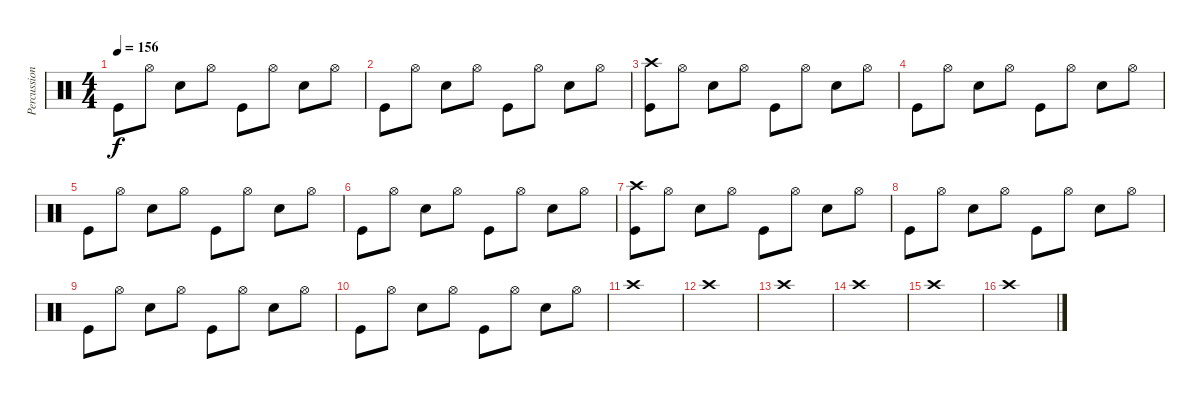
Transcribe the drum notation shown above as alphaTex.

\track ("Percussion" "Percussion") {instrument percussion}
\staff {score}
\articulation defaults
\ts (4 4)
\tempo 156
\clef neutral
\ks c "Kick (hit)".8{dy f} "Hi-Hat (open)".8 "Electric Snare (hit)".8 "Hi-Hat (open)".8 "Kick (hit)".8 "Hi-Hat (open)".8 "Electric Snare (hit)".8 "Hi-Hat (open)".8
|
"Kick (hit)".8 "Hi-Hat (open)".8 "Electric Snare (hit)".8 "Hi-Hat (open)".8 "Kick (hit)".8 "Hi-Hat (open)".8 "Electric Snare (hit)".8 "Hi-Hat (open)".8 |
("Crash high (hit)" "Kick (hit)").8 "Hi-Hat (open)".8 "Electric Snare (hit)".8 "Hi-Hat (open)".8 "Kick (hit)".8 "Hi-Hat (open)".8 "Electric Snare (hit)".8 "Hi-Hat (open)".8 |
"Kick (hit)".8 "Hi-Hat (open)".8 "Electric Snare (hit)".8 "Hi-Hat (open)".8 "Kick (hit)".8 "Hi-Hat (open)".8 "Electric Snare (hit)".8 "Hi-Hat (open)".8 |
"Kick (hit)".8 "Hi-Hat (open)".8 "Electric Snare (hit)".8 "Hi-Hat (open)".8 "Kick (hit)".8 "Hi-Hat (open)".8 "Electric Snare (hit)".8 "Hi-Hat (open)".8 |
"Kick (hit)".8 "Hi-Hat (open)".8 "Electric Snare (hit)".8 "Hi-Hat (open)".8 "Kick (hit)".8 "Hi-Hat (open)".8 "Electric Snare (hit)".8 "Hi-Hat (open)".8 |
("Crash high (hit)" "Kick (hit)").8 "Hi-Hat (open)".8 "Electric Snare (hit)".8 "Hi-Hat (open)".8 "Kick (hit)".8 "Hi-Hat (open)".8 "Electric Snare (hit)".8 "Hi-Hat (open)".8 |
"Kick (hit)".8 "Hi-Hat (open)".8 "Electric Snare (hit)".8 "Hi-Hat (open)".8 "Kick (hit)".8 "Hi-Hat (open)".8 "Electric Snare (hit)".8 "Hi-Hat (open)".8 |
"Kick (hit)".8 "Hi-Hat (open)".8 "Electric Snare (hit)".8 "Hi-Hat (open)".8 "Kick (hit)".8 "Hi-Hat (open)".8 "Electric Snare (hit)".8 "Hi-Hat (open)".8 |
"Kick (hit)".8 "Hi-Hat (open)".8 "Electric Snare (hit)".8 "Hi-Hat (open)".8 "Kick (hit)".8 "Hi-Hat (open)".8 "Electric Snare (hit)".8 "Hi-Hat (open)".8 |
"Crash high (hit)".1 |
"Crash high (hit)".1 |
"Crash high (hit)".1 |
"Crash high (hit)".1 |
"Crash high (hit)".1 |
"Crash high (hit)".1
